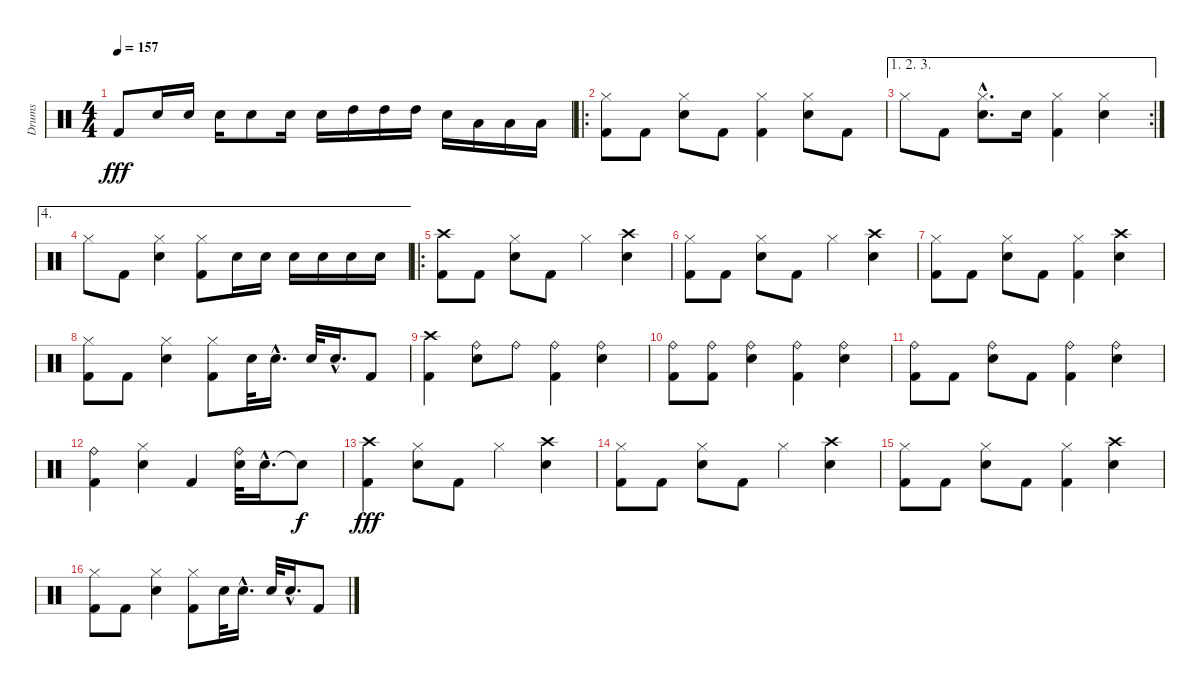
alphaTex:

\track ("Drums" "Drums") {instrument percussion}
\staff {score}
\articulation defaults
\ts (4 4)
\tempo 157
\clef neutral
\ks c "Kick (hit) 2".8{dy fff} "Snare (hit) 2".16 "Snare (hit) 2".16 "Snare (hit) 2".16 "Snare (hit) 2".8 "Snare (hit) 2".16 "Snare (hit) 2".16 "High Tom (hit)".16 "High Tom (hit)".16 "High Tom (hit)".16 "Snare (hit) 2".16 "Low Tom (hit)".16 "Low Tom (hit)".16 "Low Tom (hit)".16
|
\ro
("Hi-Hat (closed)" "Kick (hit) 2").8 "Kick (hit) 2".8 ("Hi-Hat (closed)" "Snare (hit) 2").8 "Kick (hit) 2".8 ("Hi-Hat (closed)" "Kick (hit) 2").4 ("Hi-Hat (closed)" "Snare (hit) 2").8 "Kick (hit) 2".8 |
\ae (1 2 3)
\rc 2 "Hi-Hat (closed)".8 "Kick (hit) 2".8
("Hi-Hat (closed)"{hac} "Snare (hit) 2"{hac}).8{d} "Snare (hit) 2".16 ("Hi-Hat (closed)" "Kick (hit) 2").4 ("Hi-Hat (closed)" "Snare (hit) 2").4 |
\ae 4 "Hi-Hat (closed)".8 "Kick (hit) 2".8
("Hi-Hat (closed)" "Snare (hit) 2").4 ("Hi-Hat (closed)" "Kick (hit) 2").8 "Snare (hit) 2".16 "Snare (hit) 2".16 "Snare (hit) 2".16 "Snare (hit) 2".16 "Snare (hit) 2".16 "Snare (hit) 2".16 |
\ro
("Crash high (hit)" "Kick (hit) 2").8 "Kick (hit) 2".8 ("Hi-Hat (closed)" "Snare (hit) 2").8 "Kick (hit) 2".8 "Hi-Hat (closed)".4 ("Crash high (hit)" "Snare (hit) 2").4 |
("Hi-Hat (closed)" "Kick (hit) 2").8 "Kick (hit) 2".8 ("Hi-Hat (closed)" "Snare (hit) 2").8 "Kick (hit) 2".8 "Hi-Hat (closed)".4 ("Crash high (hit)" "Snare (hit) 2").4 |
("Hi-Hat (closed)" "Kick (hit) 2").8 "Kick (hit) 2".8 ("Hi-Hat (closed)" "Snare (hit) 2").8 "Kick (hit) 2".8 ("Hi-Hat (closed)" "Kick (hit) 2").4 ("Crash high (hit)" "Snare (hit) 2").4 |
("Hi-Hat (closed)" "Kick (hit) 2").8 "Kick (hit) 2".8 ("Hi-Hat (closed)" "Snare (hit) 2").4 ("Hi-Hat (closed)" "Kick (hit) 2").8 "Snare (hit) 2".32 "Snare (hit) 2"{hac}.16{d} "Snare (hit) 2".32 "Snare (hit) 2"{hac}.16{d} "Kick (hit) 2".8 |
("Crash high (hit)" "Kick (hit) 2").4 ("Ride (bell)" "Snare (hit) 2").8 "Ride (bell)".8 ("Ride (bell)" "Kick (hit) 2").4 ("Ride (bell)" "Snare (hit) 2").4 |
("Ride (bell)" "Kick (hit) 2").8 ("Ride (bell)" "Kick (hit) 2").8 ("Ride (bell)" "Snare (hit) 2").4 ("Ride (bell)" "Kick (hit) 2").4 ("Ride (bell)" "Snare (hit) 2").4 |
("Ride (bell)" "Kick (hit) 2").8 "Kick (hit) 2".8 ("Ride (bell)" "Snare (hit) 2").8 "Kick (hit) 2".8 ("Ride (bell)" "Kick (hit) 2").4 ("Ride (bell)" "Snare (hit) 2").4 |
("Ride (bell)" "Kick (hit) 2").4 ("Hi-Hat (closed)" "Snare (hit) 2").4 "Kick (hit) 2".4 ("Ride (bell)" "Snare (hit) 2").32 "Snare (hit) 2"{hac}.16{d} "Snare (hit)"{t}.8{dy f} |
("Crash high (hit)" "Kick (hit) 2").4{dy fff} ("Hi-Hat (closed)" "Snare (hit) 2").8 "Kick (hit) 2".8 "Hi-Hat (closed)".4 ("Crash high (hit)" "Snare (hit) 2").4 |
("Hi-Hat (closed)" "Kick (hit) 2").8 "Kick (hit) 2".8 ("Hi-Hat (closed)" "Snare (hit) 2").8 "Kick (hit) 2".8 "Hi-Hat (closed)".4 ("Crash high (hit)" "Snare (hit) 2").4 |
("Hi-Hat (closed)" "Kick (hit) 2").8 "Kick (hit) 2".8 ("Hi-Hat (closed)" "Snare (hit) 2").8 "Kick (hit) 2".8 ("Hi-Hat (closed)" "Kick (hit) 2").4 ("Crash high (hit)" "Snare (hit) 2").4 |
("Hi-Hat (closed)" "Kick (hit) 2").8 "Kick (hit) 2".8 ("Hi-Hat (closed)" "Snare (hit) 2").4 ("Hi-Hat (closed)" "Kick (hit) 2").8 "Snare (hit) 2".32 "Snare (hit) 2"{hac}.16{d} "Snare (hit) 2".32 "Snare (hit) 2"{hac}.16{d} "Kick (hit) 2".8
